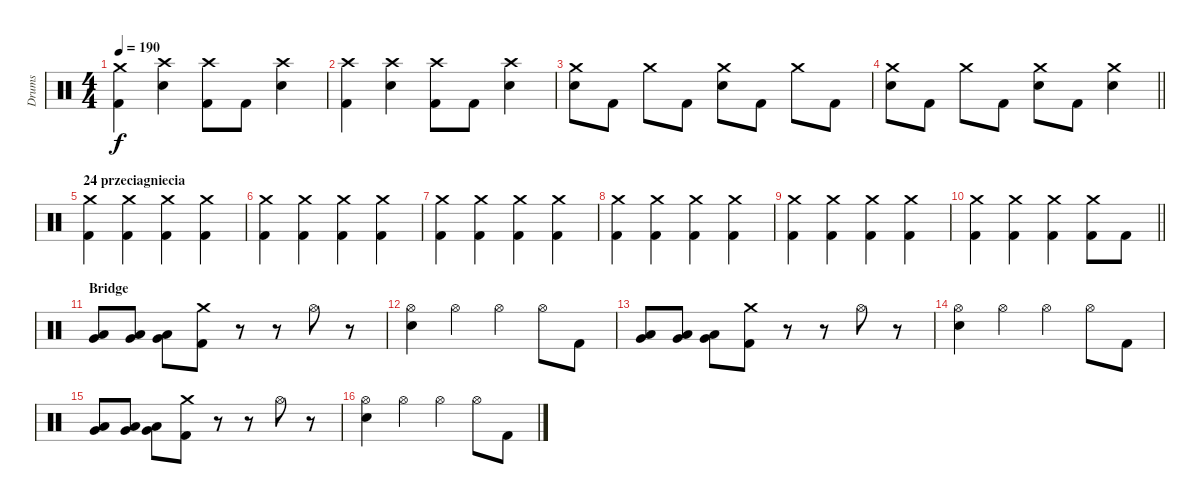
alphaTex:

\track ("Drums" "Drums") {instrument percussion}
\staff {score}
\articulation defaults
\ts (4 4)
\tempo 190
\clef neutral
\ks c
("Crash medium (hit)" "Kick (hit) 2").4{dy f} ("Crash high (hit)" "Snare (hit) 2").4 ("Crash high (hit)" "Kick (hit) 2").8 "Kick (hit) 2".8 ("Crash high (hit)" "Snare (hit) 2").4 |
("Crash high (hit)" "Kick (hit) 2").4 ("Crash high (hit)" "Snare (hit) 2").4 ("Crash high (hit)" "Kick (hit) 2").8 "Kick (hit) 2".8 ("Crash high (hit)" "Snare (hit) 2").4 |
("Crash medium (hit)" "Snare (hit) 2").8 "Kick (hit) 2".8 "Crash medium (hit)".8 "Kick (hit) 2".8 ("Crash medium (hit)" "Snare (hit) 2").8 "Kick (hit) 2".8 "Crash medium (hit)".8 "Kick (hit) 2".8 |
\barLineRight lightlight
("Crash medium (hit)" "Snare (hit) 2").8 "Kick (hit) 2".8 "Crash medium (hit)".8 "Kick (hit) 2".8 ("Crash medium (hit)" "Snare (hit) 2").8 "Kick (hit) 2".8 ("Crash medium (hit)" "Snare (hit) 2").4 |
\section ("" "24 przeciagniecia")
("Crash medium (hit)" "Kick (hit) 2").4 ("Crash medium (hit)" "Kick (hit) 2").4 ("Crash medium (hit)" "Kick (hit) 2").4 ("Crash medium (hit)" "Kick (hit) 2").4 |
("Crash medium (hit)" "Kick (hit) 2").4 ("Crash medium (hit)" "Kick (hit) 2").4 ("Crash medium (hit)" "Kick (hit) 2").4 ("Crash medium (hit)" "Kick (hit) 2").4 |
("Crash medium (hit)" "Kick (hit) 2").4 ("Crash medium (hit)" "Kick (hit) 2").4 ("Crash medium (hit)" "Kick (hit) 2").4 ("Crash medium (hit)" "Kick (hit) 2").4 |
("Crash medium (hit)" "Kick (hit) 2").4 ("Crash medium (hit)" "Kick (hit) 2").4 ("Crash medium (hit)" "Kick (hit) 2").4 ("Crash medium (hit)" "Kick (hit) 2").4 |
("Crash medium (hit)" "Kick (hit) 2").4 ("Crash medium (hit)" "Kick (hit) 2").4 ("Crash medium (hit)" "Kick (hit) 2").4 ("Crash medium (hit)" "Kick (hit) 2").4 |
\barLineRight lightlight
("Crash medium (hit)" "Kick (hit) 2").4 ("Crash medium (hit)" "Kick (hit) 2").4 ("Crash medium (hit)" "Kick (hit) 2").4 ("Crash medium (hit)" "Kick (hit) 2").8 "Kick (hit) 2".8 |
\section ("" "Bridge")
("Very Low Tom (hit)" "Low Tom (hit)").8 ("Very Low Tom (hit)" "Low Tom (hit)").8 ("Very Low Tom (hit)" "Low Tom (hit)").8 ("Crash medium (hit)" "Kick (hit) 2").8 r.8 r.8 "Hi-Hat (open)".8 r.8 |
("Hi-Hat (open)" "Snare (hit) 2").4 "Hi-Hat (open)".4 "Hi-Hat (open)".4 "Hi-Hat (open)".8 "Kick (hit) 2".8 |
("Very Low Tom (hit)" "Low Tom (hit)").8 ("Very Low Tom (hit)" "Low Tom (hit)").8 ("Very Low Tom (hit)" "Low Tom (hit)").8 ("Crash medium (hit)" "Kick (hit) 2").8 r.8 r.8 "Hi-Hat (open)".8 r.8 |
("Hi-Hat (open)" "Snare (hit) 2").4 "Hi-Hat (open)".4 "Hi-Hat (open)".4 "Hi-Hat (open)".8 "Kick (hit) 2".8 |
("Very Low Tom (hit)" "Low Tom (hit)").8 ("Very Low Tom (hit)" "Low Tom (hit)").8 ("Very Low Tom (hit)" "Low Tom (hit)").8 ("Crash medium (hit)" "Kick (hit) 2").8 r.8 r.8 "Hi-Hat (open)".8 r.8 |
("Hi-Hat (open)" "Snare (hit) 2").4 "Hi-Hat (open)".4 "Hi-Hat (open)".4 "Hi-Hat (open)".8 "Kick (hit) 2".8
